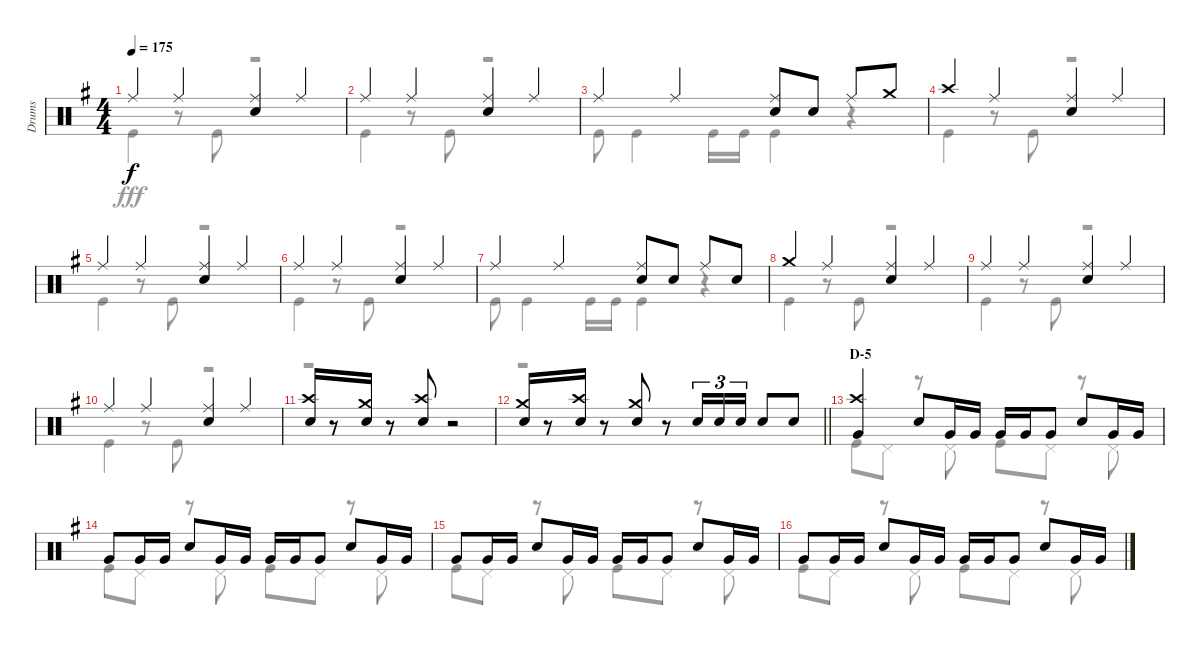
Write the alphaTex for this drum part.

\track ("Drums" "Drums") {instrument percussion}
\staff {score}
\articulation defaults
\voice
\ts (4 4)
\tempo 175
\clef neutral
\ks g "Ride (middle)".4{dy f} "Ride (middle)".4
("Ride (middle)" "Snare (hit) 2").4 "Ride (middle)".4 |
"Ride (middle)".4 "Ride (middle)".4 ("Ride (middle)" "Snare (hit) 2").4 "Ride (middle)".4 |
"Ride (middle)".4 "Ride (middle)".4 ("Ride (middle)" "Snare (hit) 2").8 "Snare (hit) 2".8 "Ride (middle)".8 "Crash medium (hit)".8 |
"Crash high (hit)".4 "Ride (middle)".4 ("Ride (middle)" "Snare (hit) 2").4 "Ride (middle)".4 |
"Ride (middle)".4 "Ride (middle)".4 ("Ride (middle)" "Snare (hit) 2").4 "Ride (middle)".4 |
"Ride (middle)".4 "Ride (middle)".4 ("Ride (middle)" "Snare (hit) 2").4 "Ride (middle)".4 |
"Ride (middle)".4 "Ride (middle)".4 ("Ride (middle)" "Snare (hit) 2").8 "Snare (hit) 2".8 "Ride (middle)".8 "Snare (hit) 2".8 |
"Crash medium (hit)".4 "Ride (middle)".4 ("Ride (middle)" "Snare (hit) 2").4 "Ride (middle)".4 |
"Ride (middle)".4 "Ride (middle)".4 ("Ride (middle)" "Snare (hit) 2").4 "Ride (middle)".4 |
"Ride (middle)".4 "Ride (middle)".4 ("Ride (middle)" "Snare (hit) 2").4 "Ride (middle)".4 |
("Crash high (hit)" "Snare (hit) 2").16 r.8 ("Crash medium (hit)" "Snare (hit) 2").16 r.8 ("Crash high (hit)" "Snare (hit) 2").8 r.2 |
\barLineRight lightlight
("Crash medium (hit)" "Snare (hit) 2").16 r.8 ("Crash high (hit)" "Snare (hit) 2").16 r.8 ("Crash medium (hit)" "Snare (hit) 2").8 r.8 "Snare (hit) 2".16{tu (3 2)} "Snare (hit) 2".16{tu (3 2)} "Snare (hit) 2".16{tu (3 2)} "Snare (hit) 2".8 "Snare (hit) 2".8 |
\section ("" "D-5")
("Crash high (hit)" "Very Low Tom (hit)").4 "Snare (hit) 2".8 "Very Low Tom (hit)".16 "Very Low Tom (hit)".16 "Very Low Tom (hit)".16 "Very Low Tom (hit)".16 "Very Low Tom (hit)".8 "Snare (hit) 2".8 "Very Low Tom (hit)".16 "Very Low Tom (hit)".16 |
"Very Low Tom (hit)".8 "Very Low Tom (hit)".16 "Very Low Tom (hit)".16 "Snare (hit) 2".8 "Very Low Tom (hit)".16 "Very Low Tom (hit)".16 "Very Low Tom (hit)".16 "Very Low Tom (hit)".16 "Very Low Tom (hit)".8 "Snare (hit) 2".8 "Very Low Tom (hit)".16 "Very Low Tom (hit)".16 |
"Very Low Tom (hit)".8 "Very Low Tom (hit)".16 "Very Low Tom (hit)".16 "Snare (hit) 2".8 "Very Low Tom (hit)".16 "Very Low Tom (hit)".16 "Very Low Tom (hit)".16 "Very Low Tom (hit)".16 "Very Low Tom (hit)".8 "Snare (hit) 2".8 "Very Low Tom (hit)".16 "Very Low Tom (hit)".16 |
"Very Low Tom (hit)".8 "Very Low Tom (hit)".16 "Very Low Tom (hit)".16 "Snare (hit) 2".8 "Very Low Tom (hit)".16 "Very Low Tom (hit)".16 "Very Low Tom (hit)".16 "Very Low Tom (hit)".16 "Very Low Tom (hit)".8 "Snare (hit) 2".8 "Very Low Tom (hit)".16 "Very Low Tom (hit)".16
\voice
\clef neutral
\ottava regular
\simile none
\ks g "Kick (hit)".4{dy fff}
r.8 "Kick (hit)".8 r.2 |
"Kick (hit)".4 r.8 "Kick (hit)".8 r.2 |
"Kick (hit)".8 "Kick (hit)".4 "Kick (hit)".16 "Kick (hit)".16 "Kick (hit)".4 r.4 |
"Kick (hit)".4 r.8 "Kick (hit)".8 r.2 |
"Kick (hit)".4 r.8 "Kick (hit)".8 r.2 |
"Kick (hit)".4 r.8 "Kick (hit)".8 r.2 |
"Kick (hit)".8 "Kick (hit)".4 "Kick (hit)".16 "Kick (hit)".16 "Kick (hit)".4 r.4 |
"Kick (hit)".4 r.8 "Kick (hit)".8 r.2 |
"Kick (hit)".4 r.8 "Kick (hit)".8 r.2 |
"Kick (hit)".4 r.8 "Kick (hit)".8 r.2 |
r.1 |
\barLineRight lightlight
r.1 |
"Kick (hit)".8 "Pedal Hi-Hat (hit)".8 r.8 "Pedal Hi-Hat (hit)".8 "Kick (hit)".8 "Pedal Hi-Hat (hit)".8 r.8 "Pedal Hi-Hat (hit)".8 |
"Kick (hit)".8 "Pedal Hi-Hat (hit)".8 r.8 "Pedal Hi-Hat (hit)".8 "Kick (hit)".8 "Pedal Hi-Hat (hit)".8 r.8 "Pedal Hi-Hat (hit)".8 |
"Kick (hit)".8 "Pedal Hi-Hat (hit)".8 r.8 "Pedal Hi-Hat (hit)".8 "Kick (hit)".8 "Pedal Hi-Hat (hit)".8 r.8 "Pedal Hi-Hat (hit)".8 |
"Kick (hit)".8 "Pedal Hi-Hat (hit)".8 r.8 "Pedal Hi-Hat (hit)".8 "Kick (hit)".8 "Pedal Hi-Hat (hit)".8 r.8 "Pedal Hi-Hat (hit)".8
